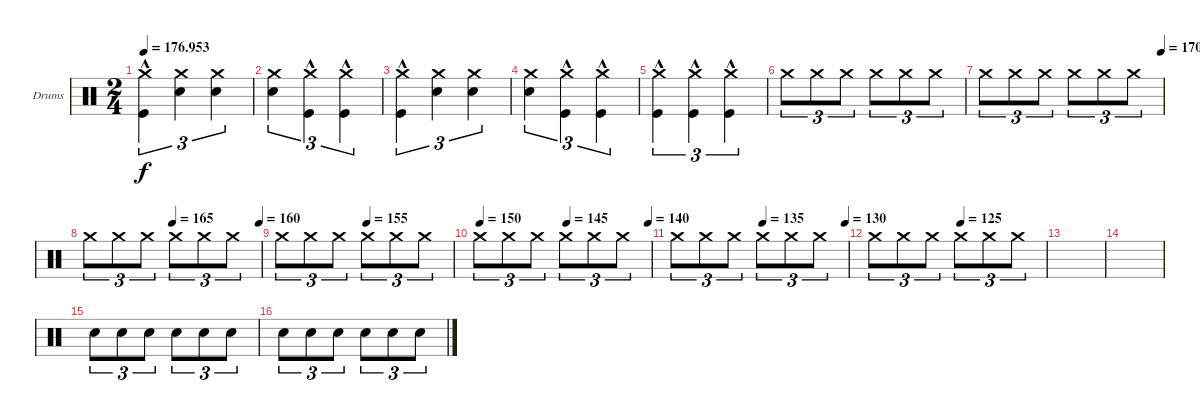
\defaultSystemsLayout 4
\bracketExtendMode groupsimilarinstruments
\firstSystemTrackNameOrientation horizontal
\otherSystemsTrackNameOrientation horizontal
\track ("Drumkit" "Drums") {instrument percussion}
\staff {score}
\articulation defaults
\ts (2 4)
\tempo
176.953
\accidentals auto
\clef neutral
\ottava regular
\simile none
\ks c
("Crash medium (hit)" "Kick (hit)"{hac}).4{tu (3 2) dy f} ("Snare (hit) 2" "Crash medium (hit)").4{tu (3 2)} ("Snare (hit) 2" "Crash medium (hit)").4{tu (3 2)} |
("Snare (hit) 2" "Crash medium (hit)").4{tu (3 2)} ("Crash medium (hit)" "Kick (hit)"{hac}).4{tu (3 2)} ("Crash medium (hit)" "Kick (hit)"{hac}).4{tu (3 2)} |
("Crash medium (hit)" "Kick (hit)"{hac}).4{tu (3 2)} ("Snare (hit) 2" "Crash medium (hit)").4{tu (3 2)} ("Snare (hit) 2" "Crash medium (hit)").4{tu (3 2)} |
("Snare (hit) 2" "Crash medium (hit)").4{tu (3 2)} ("Crash medium (hit)" "Kick (hit)"{hac}).4{tu (3 2)} ("Crash medium (hit)" "Kick (hit)"{hac}).4{tu (3 2)} |
("Crash medium (hit)" "Kick (hit)"{hac}).4{tu (3 2)} ("Crash medium (hit)" "Kick (hit)"{hac}).4{tu (3 2)} ("Crash medium (hit)" "Kick (hit)"{hac}).4{tu (3 2)} |
"Crash medium (hit)".8{tu (3 2)} "Crash medium (hit)".8{tu (3 2)} "Crash medium (hit)".8{tu (3 2)} "Crash medium (hit)".8{tu (3 2)} "Crash medium (hit)".8{tu (3 2)} "Crash medium (hit)".8{tu (3 2)} |
\tempo (170 0.99375)
"Crash medium (hit)".8{tu (3 2)} "Crash medium (hit)".8{tu (3 2)} "Crash medium (hit)".8{tu (3 2)} "Crash medium (hit)".8{tu (3 2)} "Crash medium (hit)".8{tu (3 2)} "Crash medium (hit)".8{tu (3 2)} |
\tempo (165 0.4875)
\tempo (160 0.99375)
"Crash medium (hit)".8{tu (3 2)} "Crash medium (hit)".8{tu (3 2)} "Crash medium (hit)".8{tu (3 2)} "Crash medium (hit)".8{tu (3 2)} "Crash medium (hit)".8{tu (3 2)} "Crash medium (hit)".8{tu (3 2)} |
\tempo (155 0.5)
"Crash medium (hit)".8{tu (3 2)} "Crash medium (hit)".8{tu (3 2)} "Crash medium (hit)".8{tu (3 2)} "Crash medium (hit)".8{tu (3 2)} "Crash medium (hit)".8{tu (3 2)} "Crash medium (hit)".8{tu (3 2)} |
\tempo (150 0.00625)
\tempo (145 0.5125)
\tempo (140 0.9875)
"Crash medium (hit)".8{tu (3 2)} "Crash medium (hit)".8{tu (3 2)} "Crash medium (hit)".8{tu (3 2)} "Crash medium (hit)".8{tu (3 2)} "Crash medium (hit)".8{tu (3 2)} "Crash medium (hit)".8{tu (3 2)} |
\tempo (135 0.50625)
\tempo (130 0.9875)
"Crash medium (hit)".8{tu (3 2)} "Crash medium (hit)".8{tu (3 2)} "Crash medium (hit)".8{tu (3 2)} "Crash medium (hit)".8{tu (3 2)} "Crash medium (hit)".8{tu (3 2)} "Crash medium (hit)".8{tu (3 2)} |
\tempo (125 0.50625)
"Crash medium (hit)".8{tu (3 2)} "Crash medium (hit)".8{tu (3 2)} "Crash medium (hit)".8{tu (3 2)} "Crash medium (hit)".8{tu (3 2)} "Crash medium (hit)".8{tu (3 2)} "Crash medium (hit)".8{tu (3 2)} |
|
|
"Snare (hit) 2".8{tu (3 2)} "Snare (hit) 2".8{tu (3 2)} "Snare (hit) 2".8{tu (3 2)} "Snare (hit) 2".8{tu (3 2)} "Snare (hit) 2".8{tu (3 2)} "Snare (hit) 2".8{tu (3 2)} |
"Snare (hit) 2".8{tu (3 2)} "Snare (hit) 2".8{tu (3 2)} "Snare (hit) 2".8{tu (3 2)} "Snare (hit) 2".8{tu (3 2)} "Snare (hit) 2".8{tu (3 2)} "Snare (hit) 2".8{tu (3 2)}
